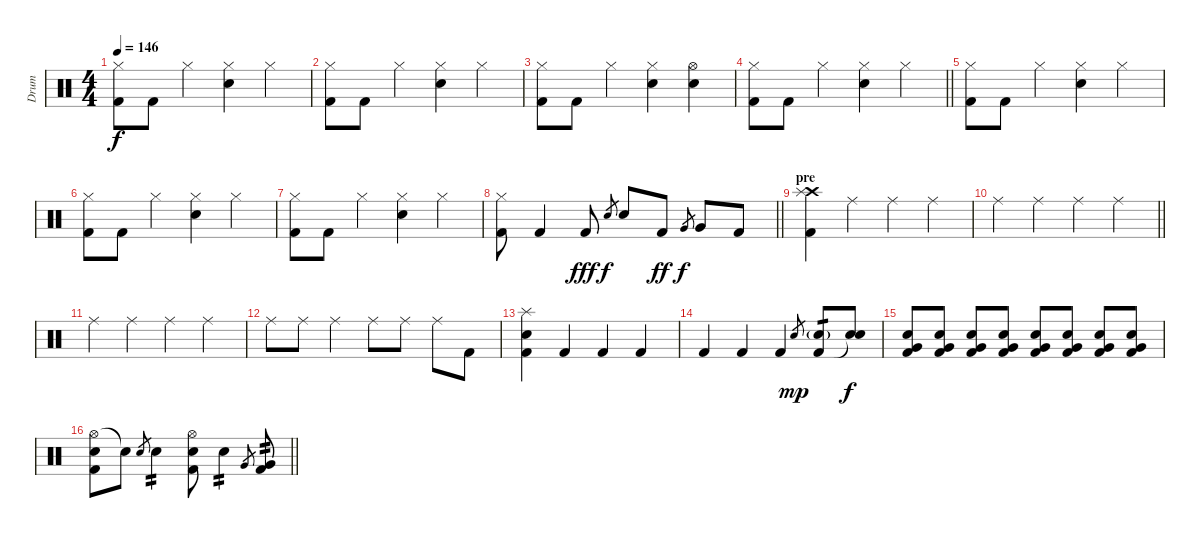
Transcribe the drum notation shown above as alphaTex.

\track ("Drum" "Drum") {instrument percussion}
\staff {score}
\articulation defaults
\ts (4 4)
\tempo 146
\clef neutral
\ks c
("Hi-Hat (closed)" "Kick (hit) 2").8{dy f} "Kick (hit) 2".8 "Hi-Hat (closed)".4 ("Hi-Hat (closed)" "Electric Snare (hit)").4 "Hi-Hat (closed)".4 |
("Hi-Hat (closed)" "Kick (hit) 2").8 "Kick (hit) 2".8 "Hi-Hat (closed)".4 ("Hi-Hat (closed)" "Electric Snare (hit)").4 "Hi-Hat (closed)".4 |
("Hi-Hat (closed)" "Kick (hit) 2").8 "Kick (hit) 2".8 "Hi-Hat (closed)".4 ("Hi-Hat (closed)" "Electric Snare (hit)").4 ("Hi-Hat (open)" "Electric Snare (hit)").4 |
\barLineRight lightlight
("Hi-Hat (closed)" "Kick (hit) 2").8 "Kick (hit) 2".8 "Hi-Hat (closed)".4 ("Hi-Hat (closed)" "Electric Snare (hit)").4 "Hi-Hat (closed)".4 |
("Hi-Hat (closed)" "Kick (hit) 2").8 "Kick (hit) 2".8 "Hi-Hat (closed)".4 ("Hi-Hat (closed)" "Electric Snare (hit)").4 "Hi-Hat (closed)".4 |
("Hi-Hat (closed)" "Kick (hit) 2").8 "Kick (hit) 2".8 "Hi-Hat (closed)".4 ("Hi-Hat (closed)" "Electric Snare (hit)").4 "Hi-Hat (closed)".4 |
("Hi-Hat (closed)" "Kick (hit) 2").8 "Kick (hit) 2".8 "Hi-Hat (closed)".4 ("Hi-Hat (closed)" "Electric Snare (hit)").4 "Hi-Hat (closed)".4 |
\barLineRight lightlight
("Hi-Hat (closed)" "Kick (hit) 2").8 "Kick (hit) 2".4 "Kick (hit) 2".8{dy fff} "Electric Snare (hit)".8{gr dy f} "Electric Snare (hit)".8 "Kick (hit) 2".8{dy ff} "Very Low Tom (hit)".8{gr dy f} "Very Low Tom (hit)".8 "Kick (hit) 2".8 |
\section ("" "pre")
("Crash high (hit)" "Splash (hit)" "Kick (hit) 2").4 "Ride (middle)".4 "Ride (middle)".4 "Ride (middle)".4 |
\barLineRight lightlight "Ride (middle)".4 "Ride (middle)".4 "Ride (middle)".4 "Ride (middle)".4
|
"Ride (middle)".4 "Ride (middle)".4 "Ride (middle)".4 "Ride (middle)".4 |
"Ride (middle)".8 "Ride (middle)".8 "Ride (middle)".4 "Ride (middle)".8 "Ride (middle)".8 "Ride (middle)".8 "Kick (hit) 2".8 |
("Splash (hit)" "Electric Snare (hit)" "Kick (hit) 2").4 "Kick (hit) 2".4 "Kick (hit) 2".4 "Kick (hit) 2".4 |
"Kick (hit) 2".4 "Kick (hit) 2".4 "Kick (hit) 2".4 "Electric Snare (hit)".8{gr dy mp} ("Electric Snare (hit)"{g} "Kick (hit) 2").8{tp 1} ("Electric Snare (hit)" "Snare (hit)"{t}).8{dy f} |
("Electric Snare (hit)" "Very Low Tom (hit)" "Kick (hit) 2").8 ("Electric Snare (hit)" "Very Low Tom (hit)" "Kick (hit) 2").8 ("Electric Snare (hit)" "Very Low Tom (hit)" "Kick (hit) 2").8 ("Electric Snare (hit)" "Very Low Tom (hit)" "Kick (hit) 2").8 ("Electric Snare (hit)" "Very Low Tom (hit)" "Kick (hit) 2").8 ("Electric Snare (hit)" "Very Low Tom (hit)" "Kick (hit) 2").8 ("Electric Snare (hit)" "Very Low Tom (hit)" "Kick (hit) 2").8 ("Electric Snare (hit)" "Very Low Tom (hit)" "Kick (hit) 2").8 |
\barLineRight lightlight
("Hi-Hat (open)" "Electric Snare (hit)" "Kick (hit) 2").8 "Snare (hit)"{t}.8 "Electric Snare (hit)".8{gr} "Electric Snare (hit)".4{tp 2} ("Hi-Hat (open)" "Electric Snare (hit)" "Kick (hit) 2").8 "Electric Snare (hit)".4{tp 2} "Very Low Tom (hit)".8{gr} ("Very Low Tom (hit)" "Kick (hit) 2").8{tp 2}
